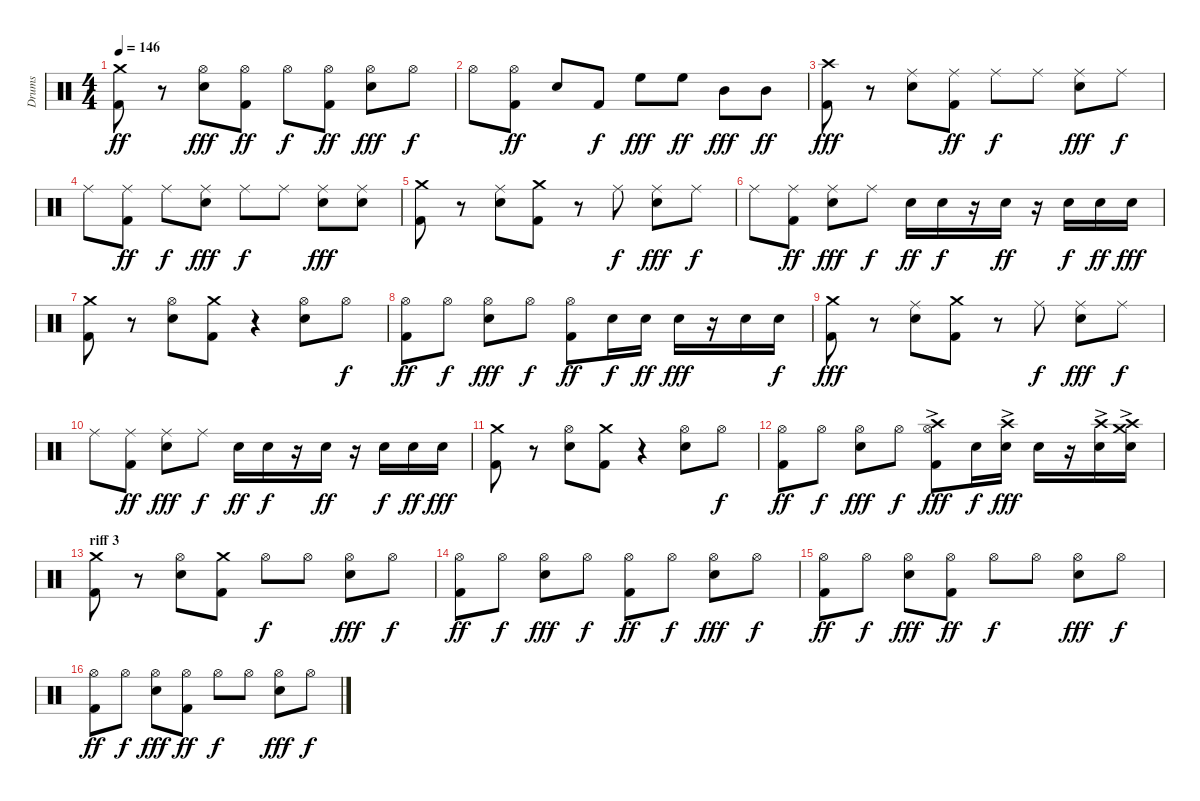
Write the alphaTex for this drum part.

\track ("Drums" "Drums") {instrument percussion}
\staff {score}
\articulation defaults
\ts (4 4)
\tempo 146
\clef neutral
\ks c
("Kick (hit) 2" "Crash medium (hit)").8{dy ff} r.8 ("Snare (hit) 2" "Hi-Hat (open)").8{dy fff} ("Kick (hit) 2" "Hi-Hat (open)").8{dy ff} "Hi-Hat (open)".8{dy f} ("Kick (hit) 2" "Hi-Hat (open)").8{dy ff} ("Snare (hit) 2" "Hi-Hat (open)").8{dy fff} "Hi-Hat (open)".8{dy f} |
"Hi-Hat (open)".8 ("Kick (hit) 2" "Hi-Hat (open)").8{dy ff} "Snare (hit) 2".8 "Kick (hit) 2".8{dy f} "High Floor Tom (hit)".8{dy fff} "High Floor Tom (hit)".8{dy ff} "Mid Tom (hit)".8{dy fff} "Mid Tom (hit)".8{dy ff} |
("Kick (hit) 2" "Crash high (hit)").8{dy fff} r.8 ("Snare (hit) 2" "Ride (middle)").8 ("Kick (hit) 2" "Ride (middle)").8{dy ff} "Ride (middle)".8{dy f} "Ride (middle)".8 ("Snare (hit) 2" "Ride (middle)").8{dy fff} "Ride (middle)".8{dy f} |
"Ride (middle)".8 ("Kick (hit) 2" "Ride (middle)").8{dy ff} "Ride (middle)".8{dy f} ("Snare (hit) 2" "Ride (middle)").8{dy fff} "Ride (middle)".8{dy f} "Ride (middle)".8 ("Snare (hit) 2" "Ride (middle)").8{dy fff} ("Snare (hit) 2" "Ride (middle)").8 |
("Kick (hit) 2" "Crash medium (hit)").8 r.8 ("Snare (hit) 2" "Ride (middle)").8 ("Kick (hit) 2" "Crash medium (hit)").8 r.8 "Ride (middle)".8{dy f} ("Snare (hit) 2" "Ride (middle)").8{dy fff} "Ride (middle)".8{dy f} |
"Ride (middle)".8 ("Kick (hit) 2" "Ride (middle)").8{dy ff} ("Snare (hit) 2" "Ride (middle)").8{dy fff} "Ride (middle)".8{dy f} "Snare (hit) 2".16{dy ff} "Snare (hit) 2".16{dy f} r.16 "Snare (hit) 2".16{dy ff} r.16 "Snare (hit) 2".16{dy f} "Snare (hit) 2".16{dy ff} "Snare (hit) 2".16{dy fff} |
("Kick (hit) 2" "Crash medium (hit)").8 r.8 ("Snare (hit) 2" "Hi-Hat (open)").8 ("Kick (hit) 2" "Crash medium (hit)").8 r.4 ("Snare (hit) 2" "Hi-Hat (open)").8 "Hi-Hat (open)".8{dy f} |
("Kick (hit) 2" "Hi-Hat (open)").8{dy ff} "Hi-Hat (open)".8{dy f} ("Snare (hit) 2" "Hi-Hat (open)").8{dy fff} "Hi-Hat (open)".8{dy f} ("Kick (hit) 2" "Hi-Hat (open)").8{dy ff} "Snare (hit) 2".16{dy f} "Snare (hit) 2".16{dy ff} "Snare (hit) 2".16{dy fff} r.16 "Snare (hit) 2".16 "Snare (hit) 2".16{dy f} |
("Kick (hit) 2" "Crash medium (hit)").8{dy fff} r.8 ("Snare (hit) 2" "Ride (middle)").8 ("Kick (hit) 2" "Crash medium (hit)").8 r.8 "Ride (middle)".8{dy f} ("Snare (hit) 2" "Ride (middle)").8{dy fff} "Ride (middle)".8{dy f} |
"Ride (middle)".8 ("Kick (hit) 2" "Ride (middle)").8{dy ff} ("Snare (hit) 2" "Ride (middle)").8{dy fff} "Ride (middle)".8{dy f} "Snare (hit) 2".16{dy ff} "Snare (hit) 2".16{dy f} r.16 "Snare (hit) 2".16{dy ff} r.16 "Snare (hit) 2".16{dy f} "Snare (hit) 2".16{dy ff} "Snare (hit) 2".16{dy fff} |
("Kick (hit) 2" "Crash medium (hit)").8 r.8 ("Snare (hit) 2" "Hi-Hat (open)").8 ("Kick (hit) 2" "Crash medium (hit)").8 r.4 ("Snare (hit) 2" "Hi-Hat (open)").8 "Hi-Hat (open)".8{dy f} |
("Kick (hit) 2" "Hi-Hat (open)").8{dy ff} "Hi-Hat (open)".8{dy f} ("Snare (hit) 2" "Hi-Hat (open)").8{dy fff} "Hi-Hat (open)".8{dy f} ("Kick (hit) 2"{ac} "Hi-Hat (open)"{ac} "Crash high (hit)"{ac}).8{dy fff} "Snare (hit) 2".16{dy f} ("Crash high (hit)"{ac} "Snare (hit) 2"{ac}).16{dy fff} "Snare (hit) 2".16 r.16 ("Snare (hit) 2"{ac} "Crash high (hit)"{ac}).16 ("Snare (hit) 2"{ac} "Crash high (hit)"{ac} "Crash medium (hit)"{ac}).16 |
\section ("" "riff 3")
("Kick (hit) 2" "Crash medium (hit)").8 r.8 ("Snare (hit) 2" "Hi-Hat (open)").8 ("Kick (hit) 2" "Crash medium (hit)").8 "Hi-Hat (open)".8{dy f} "Hi-Hat (open)".8 ("Snare (hit) 2" "Hi-Hat (open)").8{dy fff} "Hi-Hat (open)".8{dy f} |
("Kick (hit) 2" "Hi-Hat (open)").8{dy ff} "Hi-Hat (open)".8{dy f} ("Snare (hit) 2" "Hi-Hat (open)").8{dy fff} "Hi-Hat (open)".8{dy f} ("Kick (hit) 2" "Hi-Hat (open)").8{dy ff} "Hi-Hat (open)".8{dy f} ("Snare (hit) 2" "Hi-Hat (open)").8{dy fff} "Hi-Hat (open)".8{dy f} |
("Kick (hit) 2" "Hi-Hat (open)").8{dy ff} "Hi-Hat (open)".8{dy f} ("Snare (hit) 2" "Hi-Hat (open)").8{dy fff} ("Kick (hit) 2" "Hi-Hat (open)").8{dy ff} "Hi-Hat (open)".8{dy f} "Hi-Hat (open)".8 ("Snare (hit) 2" "Hi-Hat (open)").8{dy fff} "Hi-Hat (open)".8{dy f} |
("Kick (hit) 2" "Hi-Hat (open)").8{dy ff} "Hi-Hat (open)".8{dy f} ("Snare (hit) 2" "Hi-Hat (open)").8{dy fff} ("Kick (hit) 2" "Hi-Hat (open)").8{dy ff} "Hi-Hat (open)".8{dy f} "Hi-Hat (open)".8 ("Snare (hit) 2" "Hi-Hat (open)").8{dy fff} "Hi-Hat (open)".8{dy f}
